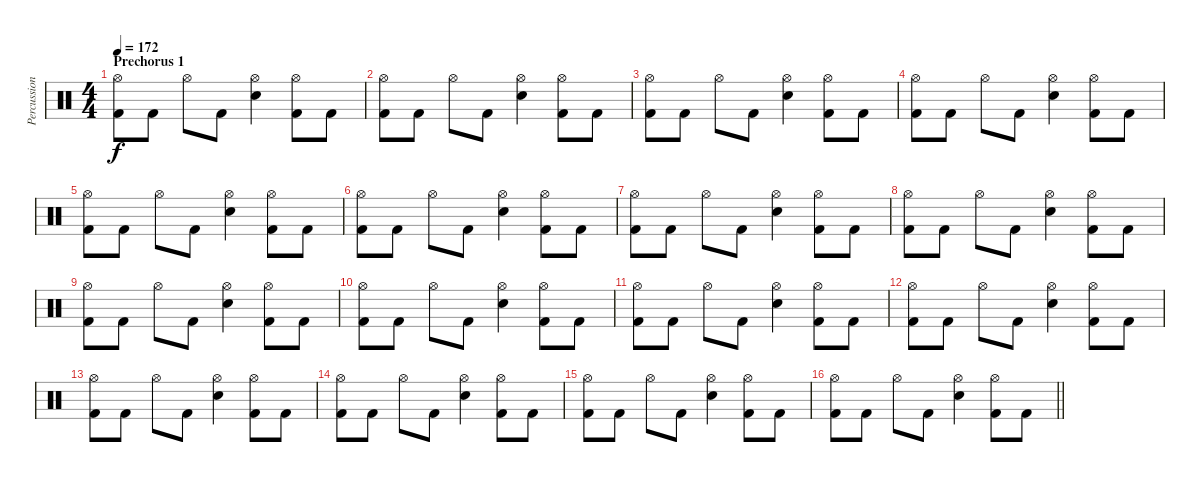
\track ("Percussion" "Percussion") {instrument percussion}
\staff {score}
\articulation defaults
\ts (4 4)
\section ("" "Prechorus 1")
\tempo 172
\clef neutral
\ks c
("Hi-Hat (open)" "Kick (hit) 2").8{dy f} "Kick (hit) 2".8 "Hi-Hat (open)".8 "Kick (hit) 2".8 ("Hi-Hat (open)" "Electric Snare (hit)").4 ("Hi-Hat (open)" "Kick (hit) 2").8 "Kick (hit) 2".8 |
("Hi-Hat (open)" "Kick (hit) 2").8 "Kick (hit) 2".8 "Hi-Hat (open)".8 "Kick (hit) 2".8 ("Hi-Hat (open)" "Electric Snare (hit)").4 ("Hi-Hat (open)" "Kick (hit) 2").8 "Kick (hit) 2".8 |
("Hi-Hat (open)" "Kick (hit) 2").8 "Kick (hit) 2".8 "Hi-Hat (open)".8 "Kick (hit) 2".8 ("Hi-Hat (open)" "Electric Snare (hit)").4 ("Hi-Hat (open)" "Kick (hit) 2").8 "Kick (hit) 2".8 |
("Hi-Hat (open)" "Kick (hit) 2").8 "Kick (hit) 2".8 "Hi-Hat (open)".8 "Kick (hit) 2".8 ("Hi-Hat (open)" "Electric Snare (hit)").4 ("Hi-Hat (open)" "Kick (hit) 2").8 "Kick (hit) 2".8 |
("Hi-Hat (open)" "Kick (hit) 2").8 "Kick (hit) 2".8 "Hi-Hat (open)".8 "Kick (hit) 2".8 ("Hi-Hat (open)" "Electric Snare (hit)").4 ("Hi-Hat (open)" "Kick (hit) 2").8 "Kick (hit) 2".8 |
("Hi-Hat (open)" "Kick (hit) 2").8 "Kick (hit) 2".8 "Hi-Hat (open)".8 "Kick (hit) 2".8 ("Hi-Hat (open)" "Electric Snare (hit)").4 ("Hi-Hat (open)" "Kick (hit) 2").8 "Kick (hit) 2".8 |
("Hi-Hat (open)" "Kick (hit) 2").8 "Kick (hit) 2".8 "Hi-Hat (open)".8 "Kick (hit) 2".8 ("Hi-Hat (open)" "Electric Snare (hit)").4 ("Hi-Hat (open)" "Kick (hit) 2").8 "Kick (hit) 2".8 |
("Hi-Hat (open)" "Kick (hit) 2").8 "Kick (hit) 2".8 "Hi-Hat (open)".8 "Kick (hit) 2".8 ("Hi-Hat (open)" "Electric Snare (hit)").4 ("Hi-Hat (open)" "Kick (hit) 2").8 "Kick (hit) 2".8 |
("Hi-Hat (open)" "Kick (hit) 2").8 "Kick (hit) 2".8 "Hi-Hat (open)".8 "Kick (hit) 2".8 ("Hi-Hat (open)" "Electric Snare (hit)").4 ("Hi-Hat (open)" "Kick (hit) 2").8 "Kick (hit) 2".8 |
("Hi-Hat (open)" "Kick (hit) 2").8 "Kick (hit) 2".8 "Hi-Hat (open)".8 "Kick (hit) 2".8 ("Hi-Hat (open)" "Electric Snare (hit)").4 ("Hi-Hat (open)" "Kick (hit) 2").8 "Kick (hit) 2".8 |
("Hi-Hat (open)" "Kick (hit) 2").8 "Kick (hit) 2".8 "Hi-Hat (open)".8 "Kick (hit) 2".8 ("Hi-Hat (open)" "Electric Snare (hit)").4 ("Hi-Hat (open)" "Kick (hit) 2").8 "Kick (hit) 2".8 |
("Hi-Hat (open)" "Kick (hit) 2").8 "Kick (hit) 2".8 "Hi-Hat (open)".8 "Kick (hit) 2".8 ("Hi-Hat (open)" "Electric Snare (hit)").4 ("Hi-Hat (open)" "Kick (hit) 2").8 "Kick (hit) 2".8 |
("Hi-Hat (open)" "Kick (hit) 2").8 "Kick (hit) 2".8 "Hi-Hat (open)".8 "Kick (hit) 2".8 ("Hi-Hat (open)" "Electric Snare (hit)").4 ("Hi-Hat (open)" "Kick (hit) 2").8 "Kick (hit) 2".8 |
("Hi-Hat (open)" "Kick (hit) 2").8 "Kick (hit) 2".8 "Hi-Hat (open)".8 "Kick (hit) 2".8 ("Hi-Hat (open)" "Electric Snare (hit)").4 ("Hi-Hat (open)" "Kick (hit) 2").8 "Kick (hit) 2".8 |
("Hi-Hat (open)" "Kick (hit) 2").8 "Kick (hit) 2".8 "Hi-Hat (open)".8 "Kick (hit) 2".8 ("Hi-Hat (open)" "Electric Snare (hit)").4 ("Hi-Hat (open)" "Kick (hit) 2").8 "Kick (hit) 2".8 |
\barLineRight lightlight
("Hi-Hat (open)" "Kick (hit) 2").8 "Kick (hit) 2".8 "Hi-Hat (open)".8 "Kick (hit) 2".8 ("Hi-Hat (open)" "Electric Snare (hit)").4 ("Hi-Hat (open)" "Kick (hit) 2").8 "Kick (hit) 2".8
